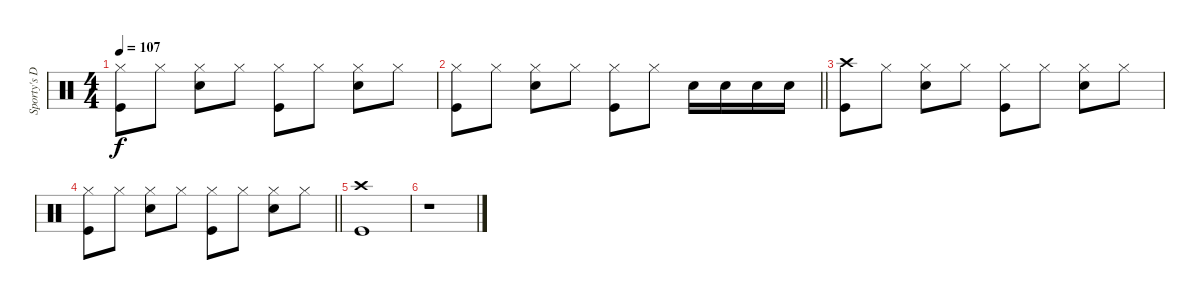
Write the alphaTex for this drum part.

\track ("Sporty's Drums" "Sporty's D") {instrument percussion}
\staff {score}
\articulation defaults
\ts (4 4)
\tempo 107
\clef neutral
\ks c
("Hi-Hat (closed)" "Kick (hit)").8{dy f} "Hi-Hat (closed)".8 ("Hi-Hat (closed)" "Electric Snare (hit)").8 "Hi-Hat (closed)".8 ("Hi-Hat (closed)" "Kick (hit)").8 "Hi-Hat (closed)".8 ("Hi-Hat (closed)" "Electric Snare (hit)").8 "Hi-Hat (closed)".8 |
\barLineRight lightlight
("Hi-Hat (closed)" "Kick (hit)").8 "Hi-Hat (closed)".8 ("Hi-Hat (closed)" "Electric Snare (hit)").8 "Hi-Hat (closed)".8 ("Hi-Hat (closed)" "Kick (hit)").8 "Hi-Hat (closed)".8 "Electric Snare (hit)".16 "Electric Snare (hit)".16 "Electric Snare (hit)".16 "Electric Snare (hit)".16 |
("Crash high (hit)" "Kick (hit)").8 "Hi-Hat (closed)".8 ("Hi-Hat (closed)" "Electric Snare (hit)").8 "Hi-Hat (closed)".8 ("Hi-Hat (closed)" "Kick (hit)").8 "Hi-Hat (closed)".8 ("Hi-Hat (closed)" "Electric Snare (hit)").8 "Hi-Hat (closed)".8 |
\barLineRight lightlight
("Hi-Hat (closed)" "Kick (hit)").8 "Hi-Hat (closed)".8 ("Hi-Hat (closed)" "Electric Snare (hit)").8 "Hi-Hat (closed)".8 ("Hi-Hat (closed)" "Kick (hit)").8 "Hi-Hat (closed)".8 ("Hi-Hat (closed)" "Electric Snare (hit)").8 "Hi-Hat (closed)".8 |
("Crash high (hit)" "Kick (hit)").1 |
r.1
